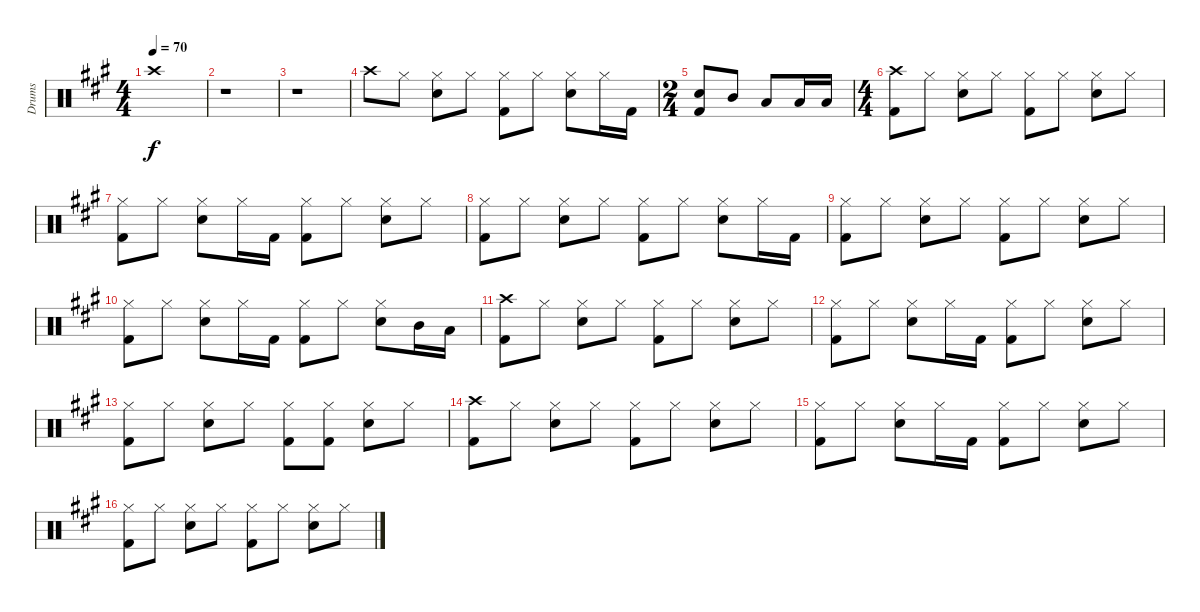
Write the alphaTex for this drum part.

\track ("Drums" "Drums") {instrument percussion}
\staff {score}
\articulation defaults
\ts (4 4)
\tempo 70
\clef neutral
\ks a "Crash high (hit)".1{dy f}
|
r.1 |
r.1 |
"Crash high (hit)".8 "Hi-Hat (closed)".8 ("Hi-Hat (closed)" "Electric Snare (hit)").8 "Hi-Hat (closed)".8 ("Hi-Hat (closed)" "Kick (hit) 2").8 "Hi-Hat (closed)".8 ("Hi-Hat (closed)" "Electric Snare (hit)").8 "Hi-Hat (closed)".16 "Kick (hit) 2".16 |
\ts (2 4)
("Electric Snare (hit)" "Kick (hit) 2").8 "Mid Tom (hit)".8 "Low Tom (hit)".8 "Low Tom (hit)".16 "Low Tom (hit)".16 |
\ts (4 4)
("Crash high (hit)" "Kick (hit) 2").8 "Hi-Hat (closed)".8 ("Hi-Hat (closed)" "Electric Snare (hit)").8 "Hi-Hat (closed)".8 ("Hi-Hat (closed)" "Kick (hit) 2").8 "Hi-Hat (closed)".8 ("Hi-Hat (closed)" "Electric Snare (hit)").8 "Hi-Hat (closed)".8 |
("Hi-Hat (closed)" "Kick (hit) 2").8 "Hi-Hat (closed)".8 ("Hi-Hat (closed)" "Electric Snare (hit)").8 "Hi-Hat (closed)".16 "Kick (hit) 2".16 ("Hi-Hat (closed)" "Kick (hit) 2").8 "Hi-Hat (closed)".8 ("Hi-Hat (closed)" "Electric Snare (hit)").8 "Hi-Hat (closed)".8 |
("Hi-Hat (closed)" "Kick (hit) 2").8 "Hi-Hat (closed)".8 ("Hi-Hat (closed)" "Electric Snare (hit)").8 "Hi-Hat (closed)".8 ("Hi-Hat (closed)" "Kick (hit) 2").8 "Hi-Hat (closed)".8 ("Hi-Hat (closed)" "Electric Snare (hit)").8 "Hi-Hat (closed)".16 "Kick (hit) 2".16 |
("Hi-Hat (closed)" "Kick (hit) 2").8 "Hi-Hat (closed)".8 ("Hi-Hat (closed)" "Electric Snare (hit)").8 "Hi-Hat (closed)".8 ("Hi-Hat (closed)" "Kick (hit) 2").8 "Hi-Hat (closed)".8 ("Hi-Hat (closed)" "Electric Snare (hit)").8 "Hi-Hat (closed)".8 |
("Hi-Hat (closed)" "Kick (hit) 2").8 "Hi-Hat (closed)".8 ("Hi-Hat (closed)" "Electric Snare (hit)").8 "Hi-Hat (closed)".16 "Kick (hit) 2".16 ("Hi-Hat (closed)" "Kick (hit) 2").8 "Hi-Hat (closed)".8 ("Hi-Hat (closed)" "Electric Snare (hit)").8 "Mid Tom (hit)".16 "Low Tom (hit)".16 |
("Crash high (hit)" "Kick (hit) 2").8 "Hi-Hat (closed)".8 ("Hi-Hat (closed)" "Electric Snare (hit)").8 "Hi-Hat (closed)".8 ("Hi-Hat (closed)" "Kick (hit) 2").8 "Hi-Hat (closed)".8 ("Hi-Hat (closed)" "Electric Snare (hit)").8 "Hi-Hat (closed)".8 |
("Hi-Hat (closed)" "Kick (hit) 2").8 "Hi-Hat (closed)".8 ("Hi-Hat (closed)" "Electric Snare (hit)").8 "Hi-Hat (closed)".16 "Kick (hit) 2".16 ("Hi-Hat (closed)" "Kick (hit) 2").8 "Hi-Hat (closed)".8 ("Hi-Hat (closed)" "Electric Snare (hit)").8 "Hi-Hat (closed)".8 |
("Hi-Hat (closed)" "Kick (hit) 2").8 "Hi-Hat (closed)".8 ("Hi-Hat (closed)" "Electric Snare (hit)").8 "Hi-Hat (closed)".8 ("Hi-Hat (closed)" "Kick (hit) 2").8 ("Hi-Hat (closed)" "Kick (hit) 2").8 ("Hi-Hat (closed)" "Electric Snare (hit)").8 "Hi-Hat (closed)".8 |
("Crash high (hit)" "Kick (hit) 2").8 "Hi-Hat (closed)".8 ("Hi-Hat (closed)" "Electric Snare (hit)").8 "Hi-Hat (closed)".8 ("Hi-Hat (closed)" "Kick (hit) 2").8 "Hi-Hat (closed)".8 ("Hi-Hat (closed)" "Electric Snare (hit)").8 "Hi-Hat (closed)".8 |
("Hi-Hat (closed)" "Kick (hit) 2").8 "Hi-Hat (closed)".8 ("Hi-Hat (closed)" "Electric Snare (hit)").8 "Hi-Hat (closed)".16 "Kick (hit) 2".16 ("Hi-Hat (closed)" "Kick (hit) 2").8 "Hi-Hat (closed)".8 ("Hi-Hat (closed)" "Electric Snare (hit)").8 "Hi-Hat (closed)".8 |
("Hi-Hat (closed)" "Kick (hit) 2").8 "Hi-Hat (closed)".8 ("Hi-Hat (closed)" "Electric Snare (hit)").8 "Hi-Hat (closed)".8 ("Hi-Hat (closed)" "Kick (hit) 2").8 "Hi-Hat (closed)".8 ("Hi-Hat (closed)" "Electric Snare (hit)").8 "Hi-Hat (closed)".8
